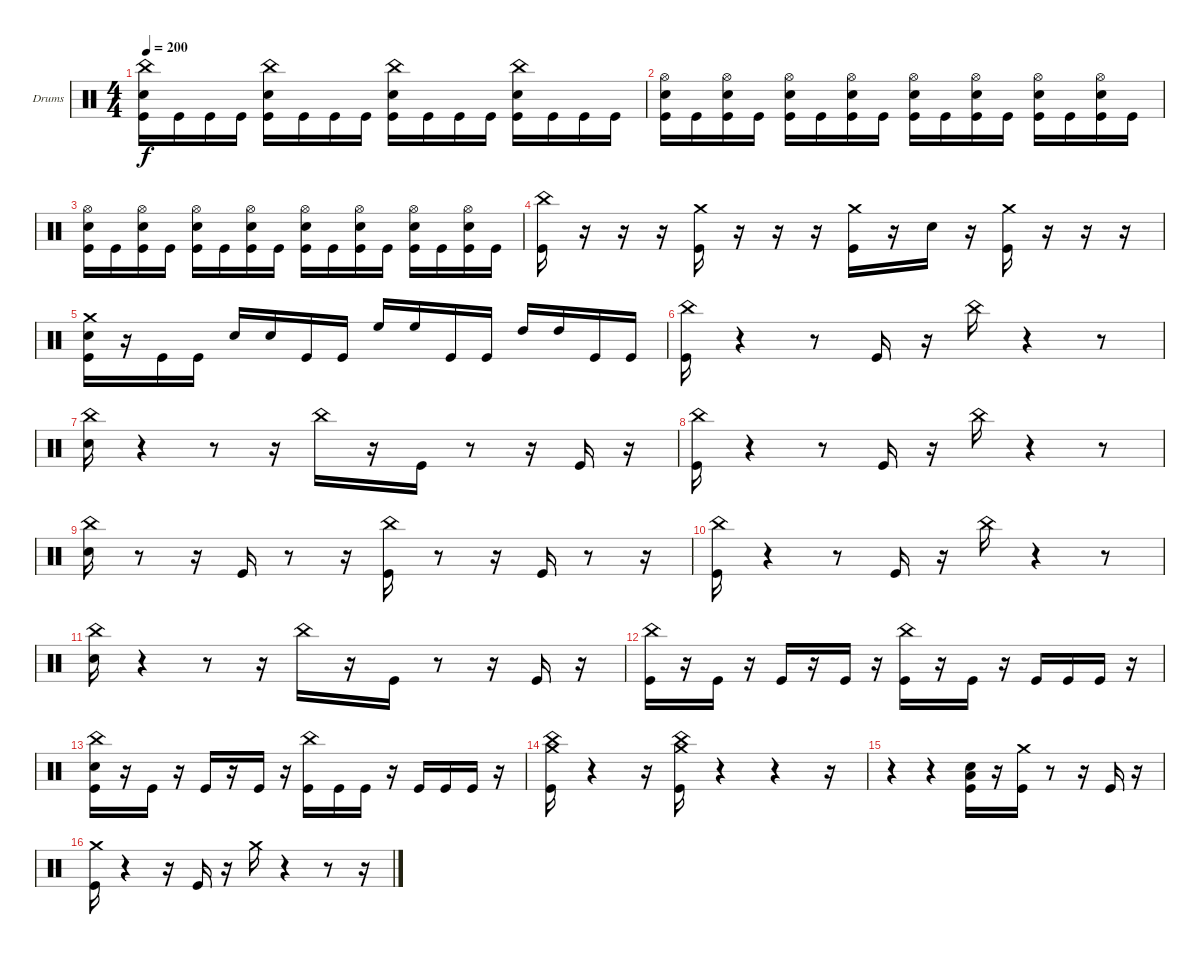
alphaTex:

\defaultSystemsLayout 4
\bracketExtendMode groupsimilarinstruments
\firstSystemTrackNameOrientation horizontal
\otherSystemsTrackNameOrientation horizontal
\track ("Drumkit" "Drums") {instrument percussion}
\staff {score}
\articulation defaults
\ts (4 4)
\tempo 200
\clef neutral
\ks c
("Kick (hit)" "Snare (hit) 2" "China (hit)").16{dy f} "Kick (hit)".16 "Kick (hit)".16 "Kick (hit)".16 ("Kick (hit)" "Snare (hit) 2" "China (hit)").16 "Kick (hit)".16 "Kick (hit)".16 "Kick (hit)".16 ("Kick (hit)" "Snare (hit) 2" "China (hit)").16 "Kick (hit)".16 "Kick (hit)".16 "Kick (hit)".16 ("Kick (hit)" "Snare (hit) 2" "China (hit)").16 "Kick (hit)".16 "Kick (hit)".16 "Kick (hit)".16 |
("Kick (hit)" "Snare (hit) 2" "Hi-Hat (open)").16 "Kick (hit)".16 ("Kick (hit)" "Snare (hit) 2" "Hi-Hat (open)").16 "Kick (hit)".16 ("Kick (hit)" "Snare (hit) 2" "Hi-Hat (open)").16 "Kick (hit)".16 ("Kick (hit)" "Snare (hit) 2" "Hi-Hat (open)").16 "Kick (hit)".16 ("Kick (hit)" "Snare (hit) 2" "Hi-Hat (open)").16 "Kick (hit)".16 ("Kick (hit)" "Snare (hit) 2" "Hi-Hat (open)").16 "Kick (hit)".16 ("Kick (hit)" "Snare (hit) 2" "Hi-Hat (open)").16 "Kick (hit)".16 ("Kick (hit)" "Snare (hit) 2" "Hi-Hat (open)").16 "Kick (hit)".16 |
("Kick (hit)" "Snare (hit) 2" "Hi-Hat (open)").16 "Kick (hit)".16 ("Kick (hit)" "Snare (hit) 2" "Hi-Hat (open)").16 "Kick (hit)".16 ("Kick (hit)" "Snare (hit) 2" "Hi-Hat (open)").16 "Kick (hit)".16 ("Kick (hit)" "Snare (hit) 2" "Hi-Hat (open)").16 "Kick (hit)".16 ("Kick (hit)" "Snare (hit) 2" "Hi-Hat (open)").16 "Kick (hit)".16 ("Kick (hit)" "Snare (hit) 2" "Hi-Hat (open)").16 "Kick (hit)".16 ("Kick (hit)" "Snare (hit) 2" "Hi-Hat (open)").16 "Kick (hit)".16 ("Kick (hit)" "Snare (hit) 2" "Hi-Hat (open)").16 "Kick (hit)".16 |
("China (hit)" "Kick (hit)").16 r.16 r.16 r.16 ("Kick (hit)" "Crash medium (hit)").16 r.16 r.16 r.16 ("Crash medium (hit)" "Kick (hit)").16 r.16 "Snare (hit) 2".16 r.16 ("Crash medium (hit)" "Kick (hit)").16 r.16 r.16 r.16 |
("Crash medium (hit)" "Snare (hit) 2" "Kick (hit)").16 r.16 "Kick (hit)".16 "Kick (hit)".16 "Snare (hit) 2".16 "Snare (hit) 2".16 "Kick (hit)".16 "Kick (hit)".16 "High Floor Tom (hit)".16 "High Floor Tom (hit)".16 "Kick (hit)".16 "Kick (hit)".16 "High Tom (hit)".16 "High Tom (hit)".16 "Kick (hit)".16 "Kick (hit)".16 |
("Kick (hit)" "China (hit)").16 r.4 r.8 "Kick (hit)".16 r.16 "China (hit)".16 r.4 r.8 |
("Snare (hit) 2" "China (hit)").16 r.4 r.8 r.16 "China (hit)".16 r.16 "Kick (hit)".16 r.8 r.16 "Kick (hit)".16 r.16 |
("Kick (hit)" "China (hit)").16 r.4 r.8 "Kick (hit)".16 r.16 "China (hit)".16 r.4 r.8 |
("Snare (hit) 2" "China (hit)").16 r.8 r.16 "Kick (hit)".16 r.8 r.16 ("China (hit)" "Kick (hit)").16 r.8 r.16 "Kick (hit)".16 r.8 r.16 |
("Kick (hit)" "China (hit)").16 r.4 r.8 "Kick (hit)".16 r.16 "China (hit)".16 r.4 r.8 |
("Snare (hit) 2" "China (hit)").16 r.4 r.8 r.16 "China (hit)".16 r.16 "Kick (hit)".16 r.8 r.16 "Kick (hit)".16 r.16 |
("Kick (hit)" "China (hit)").16 r.16 "Kick (hit)".16 r.16 "Kick (hit)".16 r.16 "Kick (hit)".16 r.16 ("Kick (hit)" "China (hit)").16 r.16 "Kick (hit)".16 r.16 "Kick (hit)".16 "Kick (hit)".16 "Kick (hit)".16 r.16 |
("Kick (hit)" "China (hit)" "Snare (hit) 2").16 r.16 "Kick (hit)".16 r.16 "Kick (hit)".16 r.16 "Kick (hit)".16 r.16 ("Kick (hit)" "China (hit)").16 "Kick (hit)".16 "Kick (hit)".16 r.16 "Kick (hit)".16 "Kick (hit)".16 "Kick (hit)".16 r.16 |
("Kick (hit)" "Crash medium (hit)" "China (hit)").16 r.4 r.16 ("China (hit)" "Crash medium (hit)" "Kick (hit)").16 r.4 r.4 r.16 |
r.4 r.4 ("Snare (hit) 2" "Low Tom (hit)" "Kick (hit)").16 r.16 ("Kick (hit)" "Crash medium (hit)").16 r.8 r.16 "Kick (hit)".16 r.16 |
("Kick (hit)" "Crash medium (hit)").16 r.4 r.16 "Kick (hit)".16 r.16 "Crash medium (hit)".16 r.4 r.8 r.16
